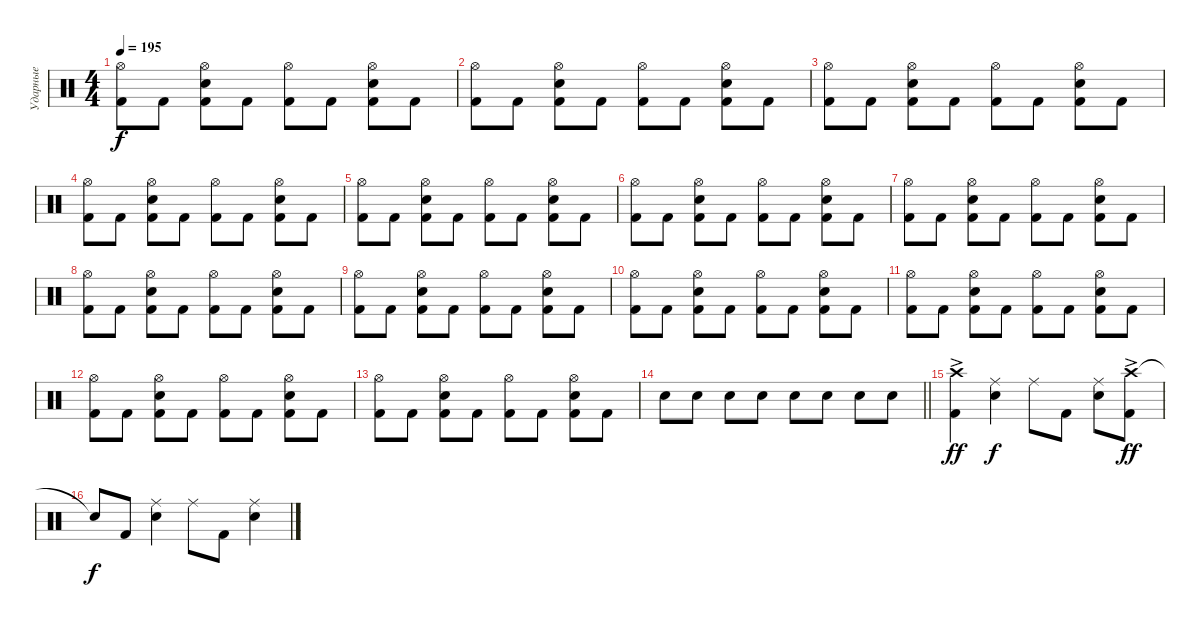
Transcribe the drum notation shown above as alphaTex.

\track ("Ударные" "Ударные") {instrument percussion}
\staff {score}
\articulation defaults
\ts (4 4)
\tempo 195
\clef neutral
\ks c
("Hi-Hat (open)" "Kick (hit) 2").8{dy f} "Kick (hit) 2".8 ("Hi-Hat (open)" "Snare (hit) 2" "Kick (hit) 2").8 "Kick (hit) 2".8 ("Hi-Hat (open)" "Kick (hit) 2").8 "Kick (hit) 2".8 ("Hi-Hat (open)" "Snare (hit) 2" "Kick (hit) 2").8 "Kick (hit) 2".8 |
("Hi-Hat (open)" "Kick (hit) 2").8 "Kick (hit) 2".8 ("Hi-Hat (open)" "Snare (hit) 2" "Kick (hit) 2").8 "Kick (hit) 2".8 ("Hi-Hat (open)" "Kick (hit) 2").8 "Kick (hit) 2".8 ("Hi-Hat (open)" "Snare (hit) 2" "Kick (hit) 2").8 "Kick (hit) 2".8 |
("Hi-Hat (open)" "Kick (hit) 2").8 "Kick (hit) 2".8 ("Hi-Hat (open)" "Snare (hit) 2" "Kick (hit) 2").8 "Kick (hit) 2".8 ("Hi-Hat (open)" "Kick (hit) 2").8 "Kick (hit) 2".8 ("Hi-Hat (open)" "Snare (hit) 2" "Kick (hit) 2").8 "Kick (hit) 2".8 |
("Hi-Hat (open)" "Kick (hit) 2").8 "Kick (hit) 2".8 ("Hi-Hat (open)" "Snare (hit) 2" "Kick (hit) 2").8 "Kick (hit) 2".8 ("Hi-Hat (open)" "Kick (hit) 2").8 "Kick (hit) 2".8 ("Hi-Hat (open)" "Snare (hit) 2" "Kick (hit) 2").8 "Kick (hit) 2".8 |
("Hi-Hat (open)" "Kick (hit) 2").8 "Kick (hit) 2".8 ("Hi-Hat (open)" "Snare (hit) 2" "Kick (hit) 2").8 "Kick (hit) 2".8 ("Hi-Hat (open)" "Kick (hit) 2").8 "Kick (hit) 2".8 ("Hi-Hat (open)" "Snare (hit) 2" "Kick (hit) 2").8 "Kick (hit) 2".8 |
("Hi-Hat (open)" "Kick (hit) 2").8 "Kick (hit) 2".8 ("Hi-Hat (open)" "Snare (hit) 2" "Kick (hit) 2").8 "Kick (hit) 2".8 ("Hi-Hat (open)" "Kick (hit) 2").8 "Kick (hit) 2".8 ("Hi-Hat (open)" "Snare (hit) 2" "Kick (hit) 2").8 "Kick (hit) 2".8 |
("Hi-Hat (open)" "Kick (hit) 2").8 "Kick (hit) 2".8 ("Hi-Hat (open)" "Snare (hit) 2" "Kick (hit) 2").8 "Kick (hit) 2".8 ("Hi-Hat (open)" "Kick (hit) 2").8 "Kick (hit) 2".8 ("Hi-Hat (open)" "Snare (hit) 2" "Kick (hit) 2").8 "Kick (hit) 2".8 |
("Hi-Hat (open)" "Kick (hit) 2").8 "Kick (hit) 2".8 ("Hi-Hat (open)" "Snare (hit) 2" "Kick (hit) 2").8 "Kick (hit) 2".8 ("Hi-Hat (open)" "Kick (hit) 2").8 "Kick (hit) 2".8 ("Hi-Hat (open)" "Snare (hit) 2" "Kick (hit) 2").8 "Kick (hit) 2".8 |
("Hi-Hat (open)" "Kick (hit) 2").8 "Kick (hit) 2".8 ("Hi-Hat (open)" "Snare (hit) 2" "Kick (hit) 2").8 "Kick (hit) 2".8 ("Hi-Hat (open)" "Kick (hit) 2").8 "Kick (hit) 2".8 ("Hi-Hat (open)" "Snare (hit) 2" "Kick (hit) 2").8 "Kick (hit) 2".8 |
("Hi-Hat (open)" "Kick (hit) 2").8 "Kick (hit) 2".8 ("Hi-Hat (open)" "Snare (hit) 2" "Kick (hit) 2").8 "Kick (hit) 2".8 ("Hi-Hat (open)" "Kick (hit) 2").8 "Kick (hit) 2".8 ("Hi-Hat (open)" "Snare (hit) 2" "Kick (hit) 2").8 "Kick (hit) 2".8 |
("Hi-Hat (open)" "Kick (hit) 2").8 "Kick (hit) 2".8 ("Hi-Hat (open)" "Snare (hit) 2" "Kick (hit) 2").8 "Kick (hit) 2".8 ("Hi-Hat (open)" "Kick (hit) 2").8 "Kick (hit) 2".8 ("Hi-Hat (open)" "Snare (hit) 2" "Kick (hit) 2").8 "Kick (hit) 2".8 |
("Hi-Hat (open)" "Kick (hit) 2").8 "Kick (hit) 2".8 ("Hi-Hat (open)" "Snare (hit) 2" "Kick (hit) 2").8 "Kick (hit) 2".8 ("Hi-Hat (open)" "Kick (hit) 2").8 "Kick (hit) 2".8 ("Hi-Hat (open)" "Snare (hit) 2" "Kick (hit) 2").8 "Kick (hit) 2".8 |
("Hi-Hat (open)" "Kick (hit) 2").8 "Kick (hit) 2".8 ("Hi-Hat (open)" "Snare (hit) 2" "Kick (hit) 2").8 "Kick (hit) 2".8 ("Hi-Hat (open)" "Kick (hit) 2").8 "Kick (hit) 2".8 ("Hi-Hat (open)" "Snare (hit) 2" "Kick (hit) 2").8 "Kick (hit) 2".8 |
\barLineRight lightlight "Snare (hit) 2".8 "Snare (hit) 2".8 "Snare (hit) 2".8 "Snare (hit) 2".8 "Snare (hit) 2".8 "Snare (hit) 2".8 "Snare (hit) 2".8 "Snare (hit) 2".8
|
("Crash high (hit)"{ac} "Kick (hit) 2").4{dy ff} ("Ride (middle)" "Snare (hit) 2").4{dy f} "Ride (middle)".8 "Kick (hit) 2".8 ("Ride (middle)" "Snare (hit) 2").8 ("Crash high (hit)"{ac} "Kick (hit) 2").8{dy ff} |
"Snare (hit)"{t}.8{dy f} "Kick (hit) 2".8 ("Ride (middle)" "Snare (hit) 2").4 "Ride (middle)".8 "Kick (hit) 2".8 ("Ride (middle)" "Snare (hit) 2").4
